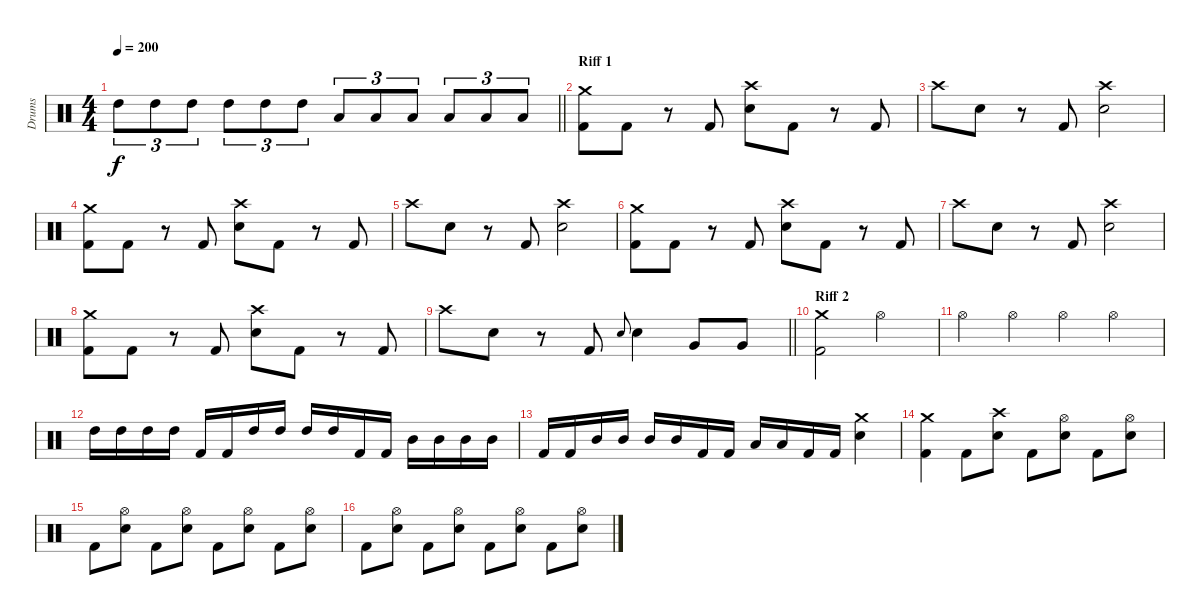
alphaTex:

\track ("Drums" "Drums") {instrument percussion}
\staff {score}
\articulation defaults
\ts (4 4)
\tempo 200
\clef neutral
\barLineRight lightlight
\ks c "High Tom (hit)".8{tu (3 2) dy f} "High Tom (hit)".8{tu (3 2)} "High Tom (hit)".8{tu (3 2)} "High Tom (hit)".8{tu (3 2)} "High Tom (hit)".8{tu (3 2)} "High Tom (hit)".8{tu (3 2)} "Low Tom (hit)".8{tu (3 2)} "Low Tom (hit)".8{tu (3 2)} "Low Tom (hit)".8{tu (3 2)} "Low Tom (hit)".8{tu (3 2)} "Low Tom (hit)".8{tu (3 2)} "Low Tom (hit)".8{tu (3 2)}
|
\section ("" "Riff 1")
("Crash medium (hit)" "Kick (hit) 2").8 "Kick (hit) 2".8 r.8 "Kick (hit) 2".8 ("Crash high (hit)" "Electric Snare (hit)").8 "Kick (hit) 2".8 r.8 "Kick (hit) 2".8 |
"Crash high (hit)".8 "Electric Snare (hit)".8 r.8 "Kick (hit) 2".8 ("Crash high (hit)" "Electric Snare (hit)").2 |
("Crash medium (hit)" "Kick (hit) 2").8 "Kick (hit) 2".8 r.8 "Kick (hit) 2".8 ("Crash high (hit)" "Electric Snare (hit)").8 "Kick (hit) 2".8 r.8 "Kick (hit) 2".8 |
"Crash high (hit)".8 "Electric Snare (hit)".8 r.8 "Kick (hit) 2".8 ("Crash high (hit)" "Electric Snare (hit)").2 |
("Crash medium (hit)" "Kick (hit) 2").8 "Kick (hit) 2".8 r.8 "Kick (hit) 2".8 ("Crash high (hit)" "Electric Snare (hit)").8 "Kick (hit) 2".8 r.8 "Kick (hit) 2".8 |
"Crash high (hit)".8 "Electric Snare (hit)".8 r.8 "Kick (hit) 2".8 ("Crash high (hit)" "Electric Snare (hit)").2 |
("Crash medium (hit)" "Kick (hit) 2").8 "Kick (hit) 2".8 r.8 "Kick (hit) 2".8 ("Crash high (hit)" "Electric Snare (hit)").8 "Kick (hit) 2".8 r.8 "Kick (hit) 2".8 |
\barLineRight lightlight "Crash high (hit)".8 "Electric Snare (hit)".8
r.8 "Kick (hit) 2".8 "Electric Snare (hit)".8{gr onbeat} "Electric Snare (hit)".4 "Very Low Tom (hit)".8 "Very Low Tom (hit)".8 |
\section ("" "Riff 2")
("Crash medium (hit)" "Kick (hit) 2").2 "Hi-Hat (open)".2 |
"Hi-Hat (open)".4 "Hi-Hat (open)".4 "Hi-Hat (open)".4 "Hi-Hat (open)".4 |
"High Tom (hit)".16 "High Tom (hit)".16 "High Tom (hit)".16 "High Tom (hit)".16 "Kick (hit) 2".16 "Kick (hit) 2".16 "High Tom (hit)".16 "High Tom (hit)".16 "High Tom (hit)".16 "High Tom (hit)".16 "Kick (hit) 2".16 "Kick (hit) 2".16 "Mid Tom (hit)".16 "Mid Tom (hit)".16 "Mid Tom (hit)".16 "Mid Tom (hit)".16 |
"Kick (hit) 2".16 "Kick (hit) 2".16 "Mid Tom (hit)".16 "Mid Tom (hit)".16 "Mid Tom (hit)".16 "Mid Tom (hit)".16 "Kick (hit) 2".16 "Kick (hit) 2".16 "Low Tom (hit)".16 "Low Tom (hit)".16 "Kick (hit) 2".16 "Kick (hit) 2".16 ("Electric Snare (hit)" "Crash medium (hit)").4 |
("Crash medium (hit)" "Kick (hit) 2").4 "Kick (hit) 2".8 ("Crash high (hit)" "Electric Snare (hit)").8 "Kick (hit) 2".8 ("Hi-Hat (open)" "Electric Snare (hit)").8 "Kick (hit) 2".8 ("Hi-Hat (open)" "Electric Snare (hit)").8 |
"Kick (hit) 2".8 ("Hi-Hat (open)" "Electric Snare (hit)").8 "Kick (hit) 2".8 ("Hi-Hat (open)" "Electric Snare (hit)").8 "Kick (hit) 2".8 ("Hi-Hat (open)" "Electric Snare (hit)").8 "Kick (hit) 2".8 ("Hi-Hat (open)" "Electric Snare (hit)").8 |
"Kick (hit) 2".8 ("Hi-Hat (open)" "Electric Snare (hit)").8 "Kick (hit) 2".8 ("Hi-Hat (open)" "Electric Snare (hit)").8 "Kick (hit) 2".8 ("Hi-Hat (open)" "Electric Snare (hit)").8 "Kick (hit) 2".8 ("Hi-Hat (open)" "Electric Snare (hit)").8
